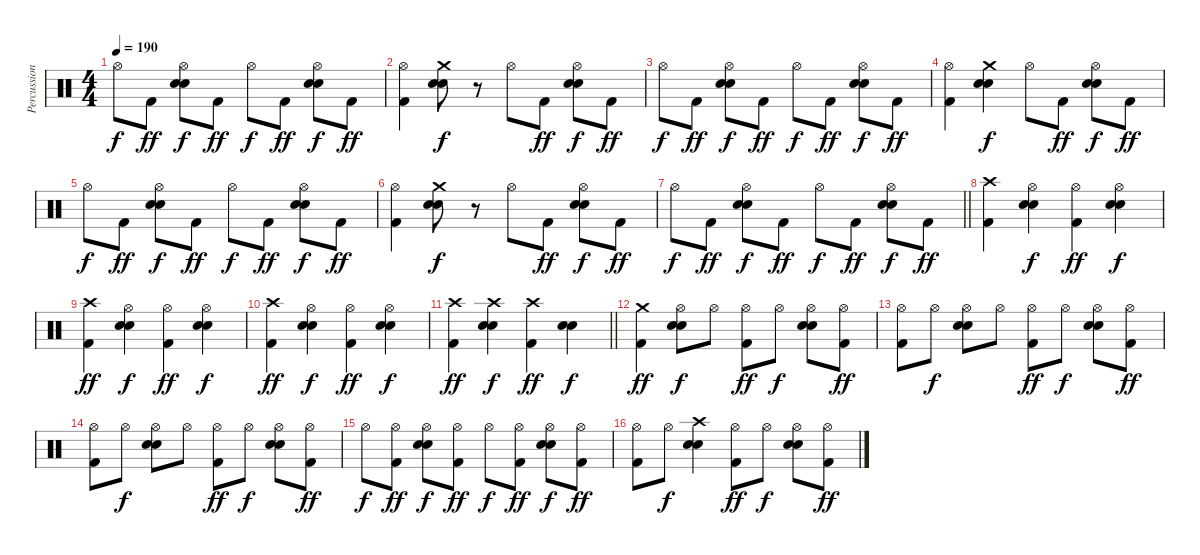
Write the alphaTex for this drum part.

\track ("Percussion" "Percussion") {instrument percussion}
\staff {score}
\articulation defaults
\ts (4 4)
\tempo 190
\clef neutral
\ks c "Hi-Hat (open)".8{dy f} "Kick (hit) 2".8{dy ff}
("Hi-Hat (open)" "Electric Snare (hit)" "Snare (hit) 2").8{dy f} "Kick (hit) 2".8{dy ff} "Hi-Hat (open)".8{dy f} "Kick (hit) 2".8{dy ff} ("Hi-Hat (open)" "Electric Snare (hit)" "Snare (hit) 2").8{dy f} "Kick (hit) 2".8{dy ff} |
("Hi-Hat (open)" "Kick (hit) 2").4 ("Crash medium (hit)" "Electric Snare (hit)" "Snare (hit) 2").8{dy f} r.8 "Hi-Hat (open)".8 "Kick (hit) 2".8{dy ff} ("Hi-Hat (open)" "Electric Snare (hit)" "Snare (hit) 2").8{dy f} "Kick (hit) 2".8{dy ff} |
"Hi-Hat (open)".8{dy f} "Kick (hit) 2".8{dy ff} ("Hi-Hat (open)" "Electric Snare (hit)" "Snare (hit) 2").8{dy f} "Kick (hit) 2".8{dy ff} "Hi-Hat (open)".8{dy f} "Kick (hit) 2".8{dy ff} ("Hi-Hat (open)" "Electric Snare (hit)" "Snare (hit) 2").8{dy f} "Kick (hit) 2".8{dy ff} |
("Hi-Hat (open)" "Kick (hit) 2").4 ("Crash medium (hit)" "Electric Snare (hit)" "Snare (hit) 2").4{dy f} "Hi-Hat (open)".8 "Kick (hit) 2".8{dy ff} ("Hi-Hat (open)" "Electric Snare (hit)" "Snare (hit) 2").8{dy f} "Kick (hit) 2".8{dy ff} |
"Hi-Hat (open)".8{dy f} "Kick (hit) 2".8{dy ff} ("Hi-Hat (open)" "Electric Snare (hit)" "Snare (hit) 2").8{dy f} "Kick (hit) 2".8{dy ff} "Hi-Hat (open)".8{dy f} "Kick (hit) 2".8{dy ff} ("Hi-Hat (open)" "Electric Snare (hit)" "Snare (hit) 2").8{dy f} "Kick (hit) 2".8{dy ff} |
("Hi-Hat (open)" "Kick (hit) 2").4 ("Crash medium (hit)" "Electric Snare (hit)" "Snare (hit) 2").8{dy f} r.8 "Hi-Hat (open)".8 "Kick (hit) 2".8{dy ff} ("Hi-Hat (open)" "Electric Snare (hit)" "Snare (hit) 2").8{dy f} "Kick (hit) 2".8{dy ff} |
\barLineRight lightlight "Hi-Hat (open)".8{dy f} "Kick (hit) 2".8{dy ff}
("Hi-Hat (open)" "Electric Snare (hit)" "Snare (hit) 2").8{dy f} "Kick (hit) 2".8{dy ff} "Hi-Hat (open)".8{dy f} "Kick (hit) 2".8{dy ff} ("Hi-Hat (open)" "Electric Snare (hit)" "Snare (hit) 2").8{dy f} "Kick (hit) 2".8{dy ff} |
\section ("" "")
("Crash high (hit)" "Kick (hit) 2").4 ("Hi-Hat (open)" "Electric Snare (hit)" "Snare (hit) 2").4{dy f} ("Hi-Hat (open)" "Kick (hit) 2").4{dy ff} ("Hi-Hat (open)" "Electric Snare (hit)" "Snare (hit) 2").4{dy f} |
("Crash high (hit)" "Kick (hit) 2").4{dy ff} ("Hi-Hat (open)" "Electric Snare (hit)" "Snare (hit) 2").4{dy f} ("Hi-Hat (open)" "Kick (hit) 2").4{dy ff} ("Hi-Hat (open)" "Electric Snare (hit)" "Snare (hit) 2").4{dy f} |
("Crash high (hit)" "Kick (hit) 2").4{dy ff} ("Hi-Hat (open)" "Electric Snare (hit)" "Snare (hit) 2").4{dy f} ("Hi-Hat (open)" "Kick (hit) 2").4{dy ff} ("Hi-Hat (open)" "Electric Snare (hit)" "Snare (hit) 2").4{dy f} |
\barLineRight lightlight
("Crash high (hit)" "Kick (hit) 2").4{dy ff} ("Crash high (hit)" "Electric Snare (hit)" "Snare (hit) 2").4{dy f} ("Crash high (hit)" "Kick (hit) 2").4{dy ff} ("Electric Snare (hit)" "Snare (hit) 2").4{dy f} |
\section ("" "")
("Crash medium (hit)" "Kick (hit) 2").4{dy ff} ("Hi-Hat (open)" "Electric Snare (hit)" "Snare (hit) 2").8{dy f} "Hi-Hat (open)".8 ("Hi-Hat (open)" "Kick (hit) 2").8{dy ff} "Hi-Hat (open)".8{dy f} ("Hi-Hat (open)" "Electric Snare (hit)" "Snare (hit) 2").8 ("Hi-Hat (open)" "Kick (hit) 2").8{dy ff} |
("Hi-Hat (open)" "Kick (hit) 2").8 "Hi-Hat (open)".8{dy f} ("Hi-Hat (open)" "Electric Snare (hit)" "Snare (hit) 2").8 "Hi-Hat (open)".8 ("Hi-Hat (open)" "Kick (hit) 2").8{dy ff} "Hi-Hat (open)".8{dy f} ("Hi-Hat (open)" "Electric Snare (hit)" "Snare (hit) 2").8 ("Hi-Hat (open)" "Kick (hit) 2").8{dy ff} |
("Hi-Hat (open)" "Kick (hit) 2").8 "Hi-Hat (open)".8{dy f} ("Hi-Hat (open)" "Electric Snare (hit)" "Snare (hit) 2").8 "Hi-Hat (open)".8 ("Hi-Hat (open)" "Kick (hit) 2").8{dy ff} "Hi-Hat (open)".8{dy f} ("Hi-Hat (open)" "Electric Snare (hit)" "Snare (hit) 2").8 ("Hi-Hat (open)" "Kick (hit) 2").8{dy ff} |
"Hi-Hat (open)".8{dy f} ("Hi-Hat (open)" "Kick (hit) 2").8{dy ff} ("Hi-Hat (open)" "Electric Snare (hit)" "Snare (hit) 2").8{dy f} ("Hi-Hat (open)" "Kick (hit) 2").8{dy ff} "Hi-Hat (open)".8{dy f} ("Hi-Hat (open)" "Kick (hit) 2").8{dy ff} ("Hi-Hat (open)" "Electric Snare (hit)" "Snare (hit) 2").8{dy f} ("Hi-Hat (open)" "Kick (hit) 2").8{dy ff} |
("Hi-Hat (open)" "Kick (hit) 2").8 "Hi-Hat (open)".8{dy f} ("Crash high (hit)" "Electric Snare (hit)" "Snare (hit) 2").4 ("Hi-Hat (open)" "Kick (hit) 2").8{dy ff} "Hi-Hat (open)".8{dy f} ("Hi-Hat (open)" "Electric Snare (hit)" "Snare (hit) 2").8 ("Hi-Hat (open)" "Kick (hit) 2").8{dy ff}
